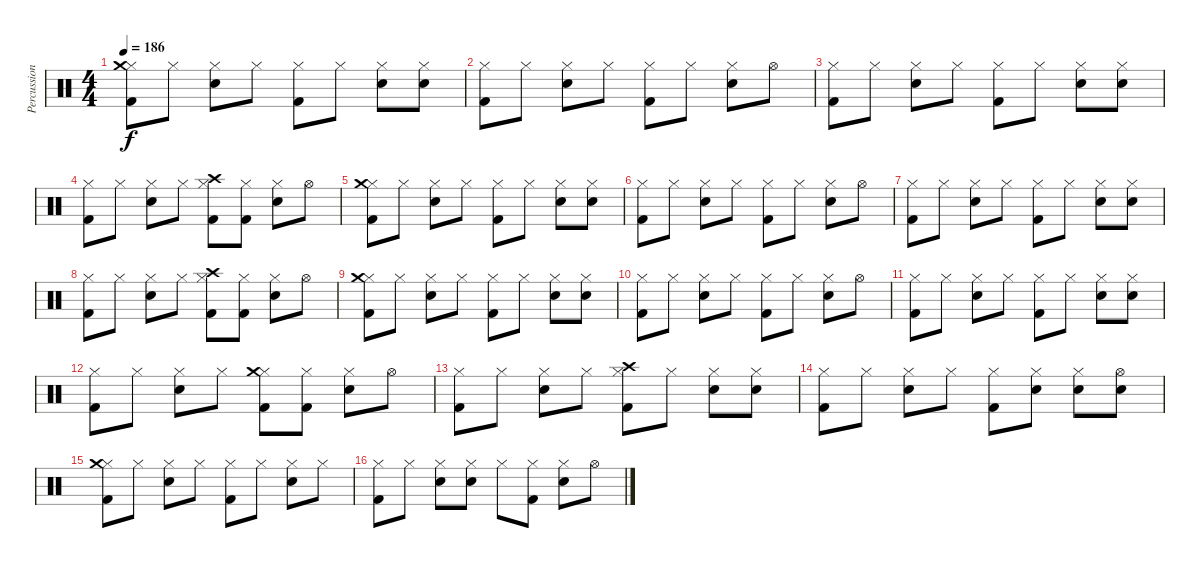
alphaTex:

\track ("Percussions" "Percussion") {instrument percussion}
\staff {score}
\articulation defaults
\ts (4 4)
\tempo 186
\clef neutral
\ks c
("Hi-Hat (closed)" "Crash medium (hit)" "Kick (hit) 2").8{dy f} "Hi-Hat (closed)".8 ("Hi-Hat (closed)" "Electric Snare (hit)").8 "Hi-Hat (closed)".8 ("Hi-Hat (closed)" "Kick (hit) 2").8 "Hi-Hat (closed)".8 ("Hi-Hat (closed)" "Electric Snare (hit)").8 ("Hi-Hat (closed)" "Electric Snare (hit)").8 |
("Hi-Hat (closed)" "Kick (hit) 2").8 "Hi-Hat (closed)".8 ("Hi-Hat (closed)" "Electric Snare (hit)").8 "Hi-Hat (closed)".8 ("Hi-Hat (closed)" "Kick (hit) 2").8 "Hi-Hat (closed)".8 ("Hi-Hat (closed)" "Electric Snare (hit)").8 "Hi-Hat (open)".8 |
("Hi-Hat (closed)" "Kick (hit) 2").8 "Hi-Hat (closed)".8 ("Hi-Hat (closed)" "Electric Snare (hit)").8 "Hi-Hat (closed)".8 ("Hi-Hat (closed)" "Kick (hit) 2").8 "Hi-Hat (closed)".8 ("Hi-Hat (closed)" "Electric Snare (hit)").8 ("Hi-Hat (closed)" "Electric Snare (hit)").8 |
("Hi-Hat (closed)" "Kick (hit) 2").8 "Hi-Hat (closed)".8 ("Hi-Hat (closed)" "Electric Snare (hit)").8 "Hi-Hat (closed)".8 ("Hi-Hat (closed)" "Crash high (hit)" "Kick (hit) 2").8 ("Hi-Hat (closed)" "Kick (hit) 2").8 ("Hi-Hat (closed)" "Electric Snare (hit)").8 "Hi-Hat (open)".8 |
("Hi-Hat (closed)" "Crash medium (hit)" "Kick (hit) 2").8 "Hi-Hat (closed)".8 ("Hi-Hat (closed)" "Electric Snare (hit)").8 "Hi-Hat (closed)".8 ("Hi-Hat (closed)" "Kick (hit) 2").8 "Hi-Hat (closed)".8 ("Hi-Hat (closed)" "Electric Snare (hit)").8 ("Hi-Hat (closed)" "Electric Snare (hit)").8 |
("Hi-Hat (closed)" "Kick (hit) 2").8 "Hi-Hat (closed)".8 ("Hi-Hat (closed)" "Electric Snare (hit)").8 "Hi-Hat (closed)".8 ("Hi-Hat (closed)" "Kick (hit) 2").8 "Hi-Hat (closed)".8 ("Hi-Hat (closed)" "Electric Snare (hit)").8 "Hi-Hat (open)".8 |
("Hi-Hat (closed)" "Kick (hit) 2").8 "Hi-Hat (closed)".8 ("Hi-Hat (closed)" "Electric Snare (hit)").8 "Hi-Hat (closed)".8 ("Hi-Hat (closed)" "Kick (hit) 2").8 "Hi-Hat (closed)".8 ("Hi-Hat (closed)" "Electric Snare (hit)").8 ("Hi-Hat (closed)" "Electric Snare (hit)").8 |
("Hi-Hat (closed)" "Kick (hit) 2").8 "Hi-Hat (closed)".8 ("Hi-Hat (closed)" "Electric Snare (hit)").8 "Hi-Hat (closed)".8 ("Hi-Hat (closed)" "Crash high (hit)" "Kick (hit) 2").8 ("Hi-Hat (closed)" "Kick (hit) 2").8 ("Hi-Hat (closed)" "Electric Snare (hit)").8 "Hi-Hat (open)".8 |
("Hi-Hat (closed)" "Crash medium (hit)" "Kick (hit) 2").8 "Hi-Hat (closed)".8 ("Hi-Hat (closed)" "Electric Snare (hit)").8 "Hi-Hat (closed)".8 ("Hi-Hat (closed)" "Kick (hit) 2").8 "Hi-Hat (closed)".8 ("Hi-Hat (closed)" "Electric Snare (hit)").8 ("Hi-Hat (closed)" "Electric Snare (hit)").8 |
("Hi-Hat (closed)" "Kick (hit) 2").8 "Hi-Hat (closed)".8 ("Hi-Hat (closed)" "Electric Snare (hit)").8 "Hi-Hat (closed)".8 ("Hi-Hat (closed)" "Kick (hit) 2").8 "Hi-Hat (closed)".8 ("Hi-Hat (closed)" "Electric Snare (hit)").8 "Hi-Hat (open)".8 |
("Hi-Hat (closed)" "Kick (hit) 2").8 "Hi-Hat (closed)".8 ("Hi-Hat (closed)" "Electric Snare (hit)").8 "Hi-Hat (closed)".8 ("Hi-Hat (closed)" "Kick (hit) 2").8 "Hi-Hat (closed)".8 ("Hi-Hat (closed)" "Electric Snare (hit)").8 ("Hi-Hat (closed)" "Electric Snare (hit)").8 |
("Hi-Hat (closed)" "Kick (hit) 2").8 "Hi-Hat (closed)".8 ("Hi-Hat (closed)" "Electric Snare (hit)").8 "Hi-Hat (closed)".8 ("Hi-Hat (closed)" "Crash medium (hit)" "Kick (hit) 2").8 ("Hi-Hat (closed)" "Kick (hit) 2").8 ("Hi-Hat (closed)" "Electric Snare (hit)").8 "Hi-Hat (open)".8 |
("Hi-Hat (closed)" "Kick (hit) 2").8 "Hi-Hat (closed)".8 ("Hi-Hat (closed)" "Electric Snare (hit)").8 "Hi-Hat (closed)".8 ("Hi-Hat (closed)" "Crash high (hit)" "Kick (hit) 2").8 "Hi-Hat (closed)".8 ("Hi-Hat (closed)" "Electric Snare (hit)").8 ("Hi-Hat (closed)" "Electric Snare (hit)").8 |
("Hi-Hat (closed)" "Kick (hit) 2").8 "Hi-Hat (closed)".8 ("Hi-Hat (closed)" "Electric Snare (hit)").8 "Hi-Hat (closed)".8 ("Hi-Hat (closed)" "Kick (hit) 2").8 ("Hi-Hat (closed)" "Electric Snare (hit)").8 ("Hi-Hat (closed)" "Electric Snare (hit)").8 ("Hi-Hat (open)" "Electric Snare (hit)").8 |
("Hi-Hat (closed)" "Crash medium (hit)" "Kick (hit) 2").8 "Hi-Hat (closed)".8 ("Hi-Hat (closed)" "Electric Snare (hit)").8 "Hi-Hat (closed)".8 ("Hi-Hat (closed)" "Kick (hit) 2").8 "Hi-Hat (closed)".8 ("Hi-Hat (closed)" "Electric Snare (hit)").8 "Hi-Hat (closed)".8 |
("Hi-Hat (closed)" "Kick (hit) 2").8 "Hi-Hat (closed)".8 ("Hi-Hat (closed)" "Electric Snare (hit)").8 ("Hi-Hat (closed)" "Electric Snare (hit)").8 "Hi-Hat (closed)".8 ("Hi-Hat (closed)" "Kick (hit) 2").8 ("Hi-Hat (closed)" "Electric Snare (hit)").8 "Hi-Hat (open)".8
